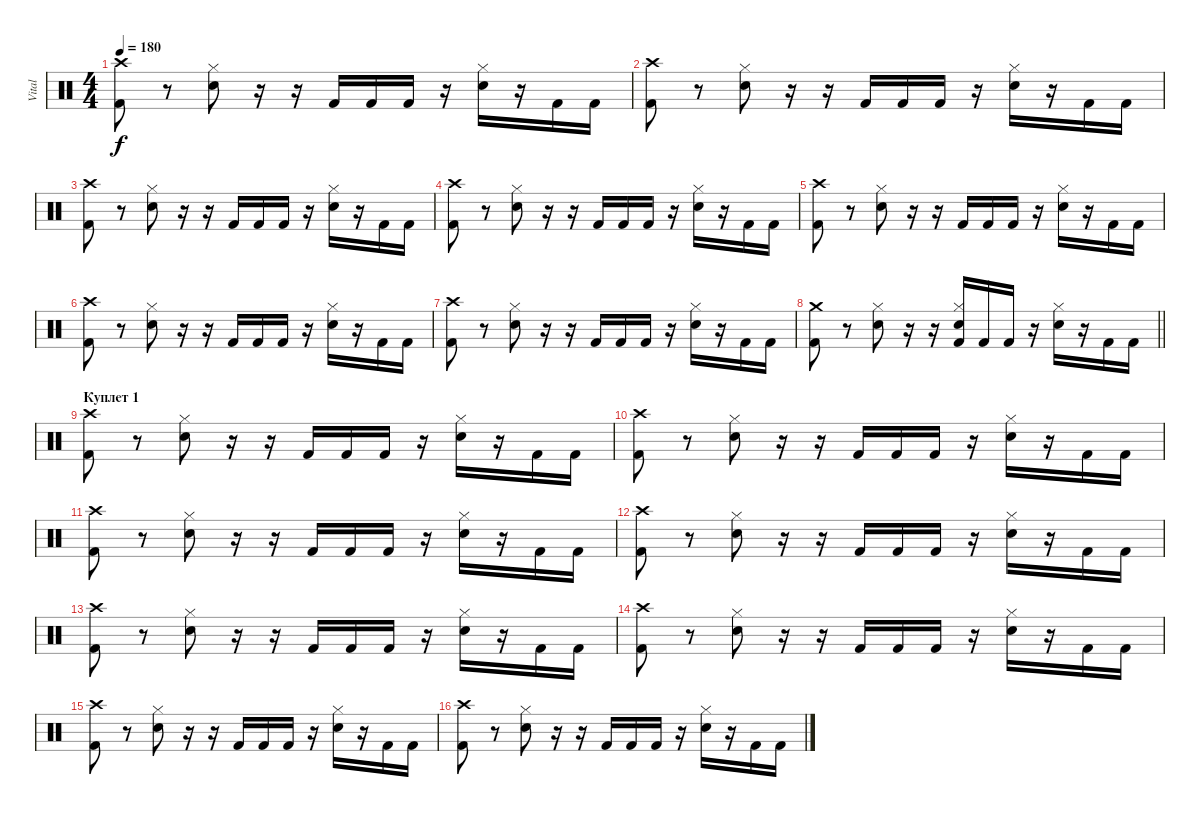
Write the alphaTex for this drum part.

\track ("Vital" "Vital") {instrument percussion}
\staff {score}
\articulation defaults
\ts (4 4)
\tempo 180
\clef neutral
\ks c
("Crash high (hit)" "Kick (hit) 2").8{dy f} r.8 ("Hi-Hat (closed)" "Snare (hit) 2").8 r.16 r.16 "Kick (hit) 2".16 "Kick (hit) 2".16 "Kick (hit) 2".16 r.16 ("Hi-Hat (closed)" "Snare (hit) 2").16 r.16 "Kick (hit) 2".16 "Kick (hit) 2".16 |
("Crash high (hit)" "Kick (hit) 2").8 r.8 ("Hi-Hat (closed)" "Snare (hit) 2").8 r.16 r.16 "Kick (hit) 2".16 "Kick (hit) 2".16 "Kick (hit) 2".16 r.16 ("Hi-Hat (closed)" "Snare (hit) 2").16 r.16 "Kick (hit) 2".16 "Kick (hit) 2".16 |
("Crash high (hit)" "Kick (hit) 2").8 r.8 ("Hi-Hat (closed)" "Snare (hit) 2").8 r.16 r.16 "Kick (hit) 2".16 "Kick (hit) 2".16 "Kick (hit) 2".16 r.16 ("Hi-Hat (closed)" "Snare (hit) 2").16 r.16 "Kick (hit) 2".16 "Kick (hit) 2".16 |
("Crash high (hit)" "Kick (hit) 2").8 r.8 ("Hi-Hat (closed)" "Snare (hit) 2").8 r.16 r.16 "Kick (hit) 2".16 "Kick (hit) 2".16 "Kick (hit) 2".16 r.16 ("Hi-Hat (closed)" "Snare (hit) 2").16 r.16 "Kick (hit) 2".16 "Kick (hit) 2".16 |
("Crash high (hit)" "Kick (hit) 2").8 r.8 ("Hi-Hat (closed)" "Snare (hit) 2").8 r.16 r.16 "Kick (hit) 2".16 "Kick (hit) 2".16 "Kick (hit) 2".16 r.16 ("Hi-Hat (closed)" "Snare (hit) 2").16 r.16 "Kick (hit) 2".16 "Kick (hit) 2".16 |
("Crash high (hit)" "Kick (hit) 2").8 r.8 ("Hi-Hat (closed)" "Snare (hit) 2").8 r.16 r.16 "Kick (hit) 2".16 "Kick (hit) 2".16 "Kick (hit) 2".16 r.16 ("Hi-Hat (closed)" "Snare (hit) 2").16 r.16 "Kick (hit) 2".16 "Kick (hit) 2".16 |
("Crash high (hit)" "Kick (hit) 2").8 r.8 ("Hi-Hat (closed)" "Snare (hit) 2").8 r.16 r.16 "Kick (hit) 2".16 "Kick (hit) 2".16 "Kick (hit) 2".16 r.16 ("Hi-Hat (closed)" "Snare (hit) 2").16 r.16 "Kick (hit) 2".16 "Kick (hit) 2".16 |
\barLineRight lightlight
("Crash medium (hit)" "Kick (hit) 2").8 r.8 ("Hi-Hat (closed)" "Snare (hit) 2").8 r.16 r.16 ("Hi-Hat (closed)" "Snare (hit) 2" "Kick (hit) 2").16 "Kick (hit) 2".16 "Kick (hit) 2".16 r.16 ("Hi-Hat (closed)" "Snare (hit) 2").16 r.16 "Kick (hit) 2".16 "Kick (hit) 2".16 |
\section ("" "Куплет 1")
("Crash high (hit)" "Kick (hit) 2").8 r.8 ("Hi-Hat (closed)" "Snare (hit) 2").8 r.16 r.16 "Kick (hit) 2".16 "Kick (hit) 2".16 "Kick (hit) 2".16 r.16 ("Hi-Hat (closed)" "Snare (hit) 2").16 r.16 "Kick (hit) 2".16 "Kick (hit) 2".16 |
("Crash high (hit)" "Kick (hit) 2").8 r.8 ("Hi-Hat (closed)" "Snare (hit) 2").8 r.16 r.16 "Kick (hit) 2".16 "Kick (hit) 2".16 "Kick (hit) 2".16 r.16 ("Hi-Hat (closed)" "Snare (hit) 2").16 r.16 "Kick (hit) 2".16 "Kick (hit) 2".16 |
("Crash high (hit)" "Kick (hit) 2").8 r.8 ("Hi-Hat (closed)" "Snare (hit) 2").8 r.16 r.16 "Kick (hit) 2".16 "Kick (hit) 2".16 "Kick (hit) 2".16 r.16 ("Hi-Hat (closed)" "Snare (hit) 2").16 r.16 "Kick (hit) 2".16 "Kick (hit) 2".16 |
("Crash high (hit)" "Kick (hit) 2").8 r.8 ("Hi-Hat (closed)" "Snare (hit) 2").8 r.16 r.16 "Kick (hit) 2".16 "Kick (hit) 2".16 "Kick (hit) 2".16 r.16 ("Hi-Hat (closed)" "Snare (hit) 2").16 r.16 "Kick (hit) 2".16 "Kick (hit) 2".16 |
("Crash high (hit)" "Kick (hit) 2").8 r.8 ("Hi-Hat (closed)" "Snare (hit) 2").8 r.16 r.16 "Kick (hit) 2".16 "Kick (hit) 2".16 "Kick (hit) 2".16 r.16 ("Hi-Hat (closed)" "Snare (hit) 2").16 r.16 "Kick (hit) 2".16 "Kick (hit) 2".16 |
("Crash high (hit)" "Kick (hit) 2").8 r.8 ("Hi-Hat (closed)" "Snare (hit) 2").8 r.16 r.16 "Kick (hit) 2".16 "Kick (hit) 2".16 "Kick (hit) 2".16 r.16 ("Hi-Hat (closed)" "Snare (hit) 2").16 r.16 "Kick (hit) 2".16 "Kick (hit) 2".16 |
("Crash high (hit)" "Kick (hit) 2").8 r.8 ("Hi-Hat (closed)" "Snare (hit) 2").8 r.16 r.16 "Kick (hit) 2".16 "Kick (hit) 2".16 "Kick (hit) 2".16 r.16 ("Hi-Hat (closed)" "Snare (hit) 2").16 r.16 "Kick (hit) 2".16 "Kick (hit) 2".16 |
("Crash high (hit)" "Kick (hit) 2").8 r.8 ("Hi-Hat (closed)" "Snare (hit) 2").8 r.16 r.16 "Kick (hit) 2".16 "Kick (hit) 2".16 "Kick (hit) 2".16 r.16 ("Hi-Hat (closed)" "Snare (hit) 2").16 r.16 "Kick (hit) 2".16 "Kick (hit) 2".16
